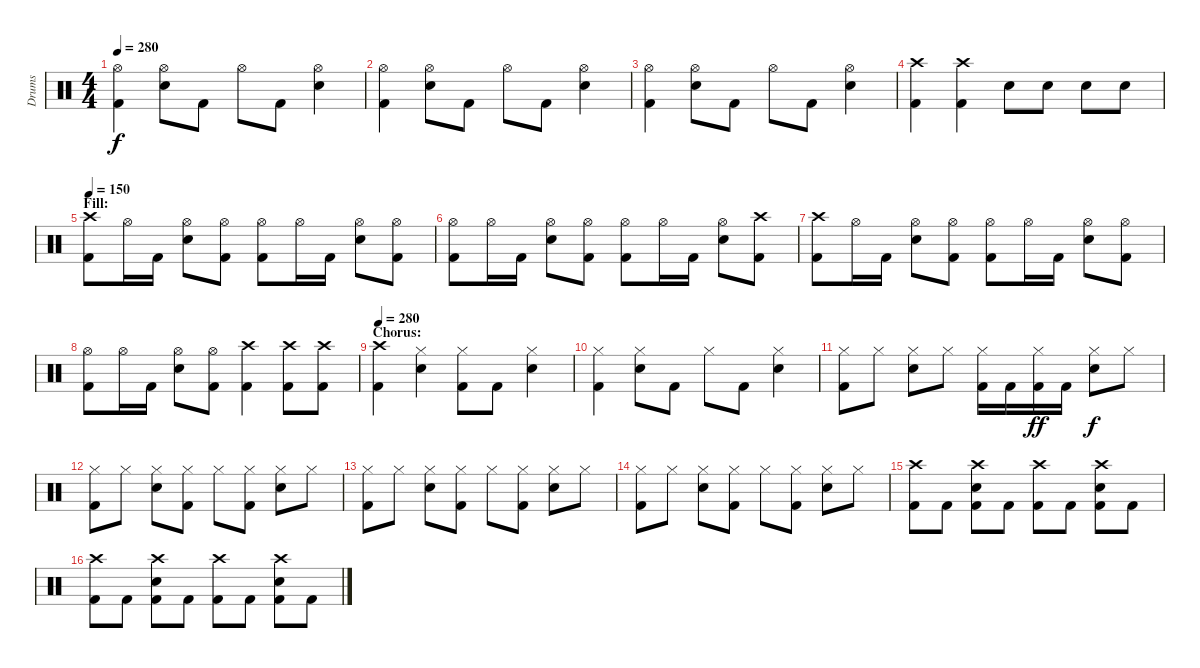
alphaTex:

\track ("Drums" "Drums") {instrument percussion}
\staff {score}
\articulation defaults
\ts (4 4)
\tempo 280
\clef neutral
\ks c
("Hi-Hat (open)" "Kick (hit) 2").4{dy f} ("Hi-Hat (open)" "Snare (hit) 2").8 "Kick (hit) 2".8 "Hi-Hat (open)".8 "Kick (hit) 2".8 ("Hi-Hat (open)" "Snare (hit) 2").4 |
("Hi-Hat (open)" "Kick (hit) 2").4 ("Hi-Hat (open)" "Snare (hit) 2").8 "Kick (hit) 2".8 "Hi-Hat (open)".8 "Kick (hit) 2".8 ("Hi-Hat (open)" "Snare (hit) 2").4 |
("Hi-Hat (open)" "Kick (hit) 2").4 ("Hi-Hat (open)" "Snare (hit) 2").8 "Kick (hit) 2".8 "Hi-Hat (open)".8 "Kick (hit) 2".8 ("Hi-Hat (open)" "Snare (hit) 2").4 |
("Crash high (hit)" "Kick (hit) 2").4 ("Crash high (hit)" "Kick (hit) 2").4 "Snare (hit) 2".8 "Snare (hit) 2".8 "Snare (hit) 2".8 "Snare (hit) 2".8 |
\section ("" "Fill:")
\tempo 150
("Crash high (hit)" "Kick (hit) 2").8 "Hi-Hat (open)".16 "Kick (hit) 2".16 ("Hi-Hat (open)" "Snare (hit) 2").8 ("Hi-Hat (open)" "Kick (hit) 2").8 ("Hi-Hat (open)" "Kick (hit) 2").8 "Hi-Hat (open)".16 "Kick (hit) 2".16 ("Hi-Hat (open)" "Snare (hit) 2").8 ("Hi-Hat (open)" "Kick (hit) 2").8 |
("Hi-Hat (open)" "Kick (hit) 2").8 "Hi-Hat (open)".16 "Kick (hit) 2".16 ("Hi-Hat (open)" "Snare (hit) 2").8 ("Hi-Hat (open)" "Kick (hit) 2").8 ("Hi-Hat (open)" "Kick (hit) 2").8 "Hi-Hat (open)".16 "Kick (hit) 2".16 ("Hi-Hat (open)" "Snare (hit) 2").8 ("Crash high (hit)" "Kick (hit) 2").8 |
("Crash high (hit)" "Kick (hit) 2").8 "Hi-Hat (open)".16 "Kick (hit) 2".16 ("Hi-Hat (open)" "Snare (hit) 2").8 ("Hi-Hat (open)" "Kick (hit) 2").8 ("Hi-Hat (open)" "Kick (hit) 2").8 "Hi-Hat (open)".16 "Kick (hit) 2".16 ("Hi-Hat (open)" "Snare (hit) 2").8 ("Hi-Hat (open)" "Kick (hit) 2").8 |
("Hi-Hat (open)" "Kick (hit) 2").8 "Hi-Hat (open)".16 "Kick (hit) 2".16 ("Hi-Hat (open)" "Snare (hit) 2").8 ("Hi-Hat (open)" "Kick (hit) 2").8 ("Crash high (hit)" "Kick (hit) 2").4 ("Crash high (hit)" "Kick (hit) 2").8 ("Crash high (hit)" "Kick (hit) 2").8 |
\section ("" "Chorus:")
\tempo 280
("Crash high (hit)" "Kick (hit) 2").4 ("Hi-Hat (closed)" "Snare (hit) 2").4 ("Hi-Hat (closed)" "Kick (hit) 2").8 "Kick (hit) 2".8 ("Hi-Hat (closed)" "Snare (hit) 2").4 |
("Hi-Hat (closed)" "Kick (hit) 2").4 ("Hi-Hat (closed)" "Snare (hit) 2").8 "Kick (hit) 2".8 "Hi-Hat (closed)".8 "Kick (hit) 2".8 ("Hi-Hat (closed)" "Snare (hit) 2").4 |
("Hi-Hat (closed)" "Kick (hit) 2").8 "Hi-Hat (closed)".8 ("Hi-Hat (closed)" "Snare (hit) 2").8 "Hi-Hat (closed)".8 ("Hi-Hat (closed)" "Kick (hit) 2").16 "Kick (hit) 2".16 ("Hi-Hat (closed)" "Kick (hit) 2").16{dy ff} "Kick (hit) 2".16 ("Hi-Hat (closed)" "Snare (hit) 2").8{dy f} "Hi-Hat (closed)".8 |
("Hi-Hat (closed)" "Kick (hit) 2").8 "Hi-Hat (closed)".8 ("Hi-Hat (closed)" "Snare (hit) 2").8 ("Hi-Hat (closed)" "Kick (hit) 2").8 "Hi-Hat (closed)".8 ("Hi-Hat (closed)" "Kick (hit) 2").8 ("Hi-Hat (closed)" "Snare (hit) 2").8 "Hi-Hat (closed)".8 |
("Hi-Hat (closed)" "Kick (hit) 2").8 "Hi-Hat (closed)".8 ("Hi-Hat (closed)" "Snare (hit) 2").8 ("Hi-Hat (closed)" "Kick (hit) 2").8 "Hi-Hat (closed)".8 ("Hi-Hat (closed)" "Kick (hit) 2").8 ("Hi-Hat (closed)" "Snare (hit) 2").8 "Hi-Hat (closed)".8 |
("Hi-Hat (closed)" "Kick (hit) 2").8 "Hi-Hat (closed)".8 ("Hi-Hat (closed)" "Snare (hit) 2").8 ("Hi-Hat (closed)" "Kick (hit) 2").8 "Hi-Hat (closed)".8 ("Hi-Hat (closed)" "Kick (hit) 2").8 ("Hi-Hat (closed)" "Snare (hit) 2").8 "Hi-Hat (closed)".8 |
("Crash high (hit)" "Kick (hit) 2").8 "Kick (hit) 2".8 ("Crash high (hit)" "Snare (hit) 2" "Kick (hit) 2").8 "Kick (hit) 2".8 ("Crash high (hit)" "Kick (hit) 2").8 "Kick (hit) 2".8 ("Crash high (hit)" "Snare (hit) 2" "Kick (hit) 2").8 "Kick (hit) 2".8 |
("Crash high (hit)" "Kick (hit) 2").8 "Kick (hit) 2".8 ("Crash high (hit)" "Snare (hit) 2" "Kick (hit) 2").8 "Kick (hit) 2".8 ("Crash high (hit)" "Kick (hit) 2").8 "Kick (hit) 2".8 ("Crash high (hit)" "Snare (hit) 2" "Kick (hit) 2").8 "Kick (hit) 2".8
